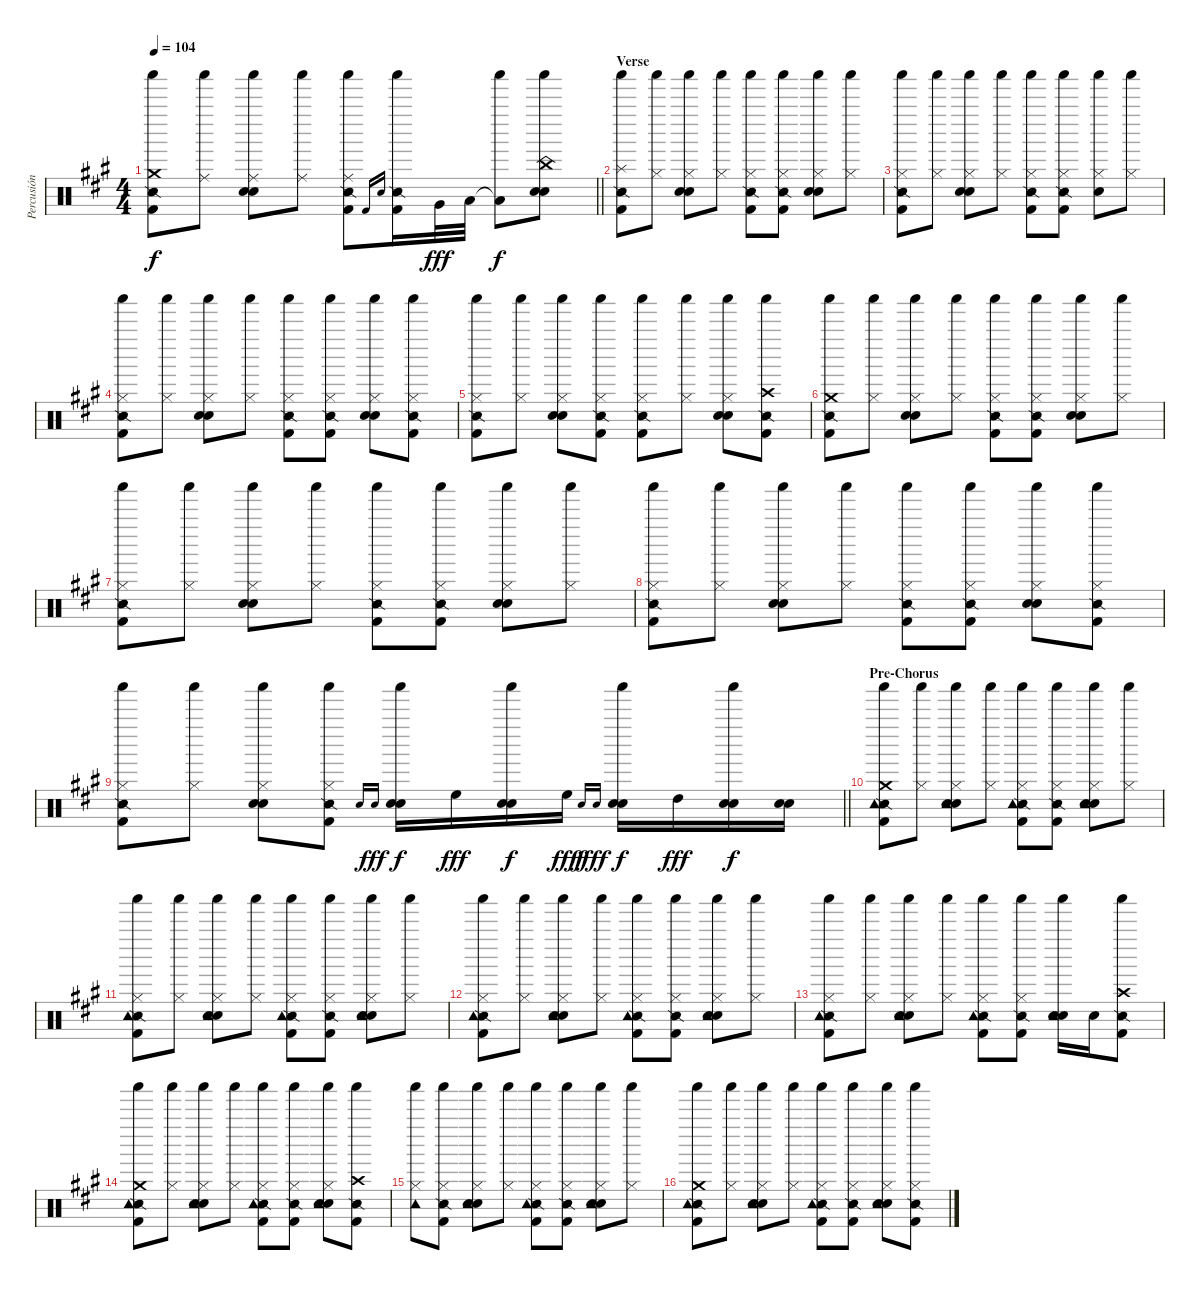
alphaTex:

\track ("Percusión" "Percusión") {instrument percussion}
\staff {score}
\articulation defaults
\ts (4 4)
\tempo 104
\clef neutral
\barLineRight lightlight
\ks a
("Crash medium (hit)" "Kick (hit) 2" "Snare (side stick) 2" "Shaker (hit)").8{dy f} ("Ride (middle)" "Shaker (hit)").8 ("Ride (middle)" "Snare (hit) 2" "Electric Snare (hit)" "Shaker (hit)").8 ("Ride (middle)" "Shaker (hit)").8 ("Ride (middle)" "Kick (hit) 2" "Snare (side stick) 2" "Shaker (hit)").8 "Kick (hit) 2".16{gr onbeat} "Snare (hit)".16{gr onbeat} ("Kick (hit) 2" "Snare (side stick) 2" "Shaker (hit)").16 "Very Low Tom (hit)".32{dy fff} "Low Floor Tom (hit)".32 ("Low Floor Tom (hit)"{t} "Shaker (hit)").8{dy f} ("China (hit)" "Snare (hit) 2" "Electric Snare (hit)" "Shaker (hit)").8 |
\section ("" "Verse")
("Splash (hit)" "Kick (hit) 2" "Snare (side stick) 2" "Shaker (hit)").8 ("Hi-Hat (closed)" "Shaker (hit)").8 ("Hi-Hat (closed)" "Snare (hit) 2" "Electric Snare (hit)" "Shaker (hit)").8 ("Hi-Hat (closed)" "Shaker (hit)").8 ("Hi-Hat (closed)" "Kick (hit) 2" "Snare (side stick) 2" "Shaker (hit)").8 ("Hi-Hat (closed)" "Kick (hit) 2" "Snare (side stick) 2" "Shaker (hit)").8 ("Hi-Hat (closed)" "Snare (hit) 2" "Electric Snare (hit)" "Shaker (hit)").8 ("Hi-Hat (closed)" "Shaker (hit)").8 |
("Hi-Hat (closed)" "Kick (hit) 2" "Snare (side stick) 2" "Shaker (hit)").8 ("Hi-Hat (closed)" "Shaker (hit)").8 ("Hi-Hat (closed)" "Snare (hit) 2" "Electric Snare (hit)" "Shaker (hit)").8 ("Hi-Hat (closed)" "Shaker (hit)").8 ("Hi-Hat (closed)" "Kick (hit) 2" "Snare (side stick) 2" "Shaker (hit)").8 ("Hi-Hat (closed)" "Kick (hit) 2" "Snare (side stick) 2" "Shaker (hit)").8 ("Hi-Hat (closed)" "Snare (hit) 2" "Shaker (hit)").8 ("Hi-Hat (closed)" "Shaker (hit)").8 |
("Hi-Hat (closed)" "Kick (hit) 2" "Snare (side stick) 2" "Shaker (hit)").8 ("Hi-Hat (closed)" "Shaker (hit)").8 ("Hi-Hat (closed)" "Snare (hit) 2" "Electric Snare (hit)" "Shaker (hit)").8 ("Hi-Hat (closed)" "Shaker (hit)").8 ("Hi-Hat (closed)" "Kick (hit) 2" "Snare (side stick) 2" "Shaker (hit)").8 ("Hi-Hat (closed)" "Kick (hit) 2" "Snare (side stick) 2" "Shaker (hit)").8 ("Hi-Hat (closed)" "Snare (hit) 2" "Electric Snare (hit)" "Shaker (hit)").8 ("Hi-Hat (closed)" "Kick (hit) 2" "Snare (side stick) 2" "Shaker (hit)").8 |
("Hi-Hat (closed)" "Kick (hit) 2" "Snare (side stick) 2" "Shaker (hit)").8 ("Hi-Hat (closed)" "Shaker (hit)").8 ("Hi-Hat (closed)" "Snare (hit) 2" "Electric Snare (hit)" "Shaker (hit)").8 ("Hi-Hat (closed)" "Kick (hit) 2" "Snare (side stick) 2" "Shaker (hit)").8 ("Hi-Hat (closed)" "Kick (hit) 2" "Snare (side stick) 2" "Shaker (hit)").8 ("Hi-Hat (closed)" "Shaker (hit)").8 ("Hi-Hat (closed)" "Snare (hit) 2" "Electric Snare (hit)" "Shaker (hit)").8 ("Crash high (hit)" "Kick (hit) 2" "Snare (side stick) 2" "Shaker (hit)").8 |
("Crash medium (hit)" "Kick (hit) 2" "Snare (side stick) 2" "Shaker (hit)").8 ("Hi-Hat (closed)" "Shaker (hit)").8 ("Hi-Hat (closed)" "Snare (hit) 2" "Electric Snare (hit)" "Shaker (hit)").8 ("Hi-Hat (closed)" "Shaker (hit)").8 ("Hi-Hat (closed)" "Kick (hit) 2" "Snare (side stick) 2" "Shaker (hit)").8 ("Hi-Hat (closed)" "Kick (hit) 2" "Snare (side stick) 2" "Shaker (hit)").8 ("Hi-Hat (closed)" "Snare (hit) 2" "Electric Snare (hit)" "Shaker (hit)").8 ("Hi-Hat (closed)" "Shaker (hit)").8 |
("Hi-Hat (closed)" "Kick (hit) 2" "Snare (side stick) 2" "Shaker (hit)").8 ("Hi-Hat (closed)" "Shaker (hit)").8 ("Hi-Hat (closed)" "Snare (hit) 2" "Electric Snare (hit)" "Shaker (hit)").8 ("Hi-Hat (closed)" "Shaker (hit)").8 ("Hi-Hat (closed)" "Kick (hit) 2" "Snare (side stick) 2" "Shaker (hit)").8 ("Hi-Hat (closed)" "Kick (hit) 2" "Snare (side stick) 2" "Shaker (hit)").8 ("Hi-Hat (closed)" "Snare (hit) 2" "Electric Snare (hit)" "Shaker (hit)").8 ("Hi-Hat (closed)" "Shaker (hit)").8 |
("Hi-Hat (closed)" "Kick (hit) 2" "Snare (side stick) 2" "Shaker (hit)").8 ("Hi-Hat (closed)" "Shaker (hit)").8 ("Hi-Hat (closed)" "Snare (hit) 2" "Electric Snare (hit)" "Shaker (hit)").8 ("Hi-Hat (closed)" "Shaker (hit)").8 ("Hi-Hat (closed)" "Kick (hit) 2" "Snare (side stick) 2" "Shaker (hit)").8 ("Hi-Hat (closed)" "Kick (hit) 2" "Snare (side stick) 2" "Shaker (hit)").8 ("Hi-Hat (closed)" "Snare (hit) 2" "Electric Snare (hit)" "Shaker (hit)").8 ("Hi-Hat (closed)" "Kick (hit) 2" "Snare (side stick) 2" "Shaker (hit)").8 |
\barLineRight lightlight
("Hi-Hat (closed)" "Kick (hit) 2" "Snare (side stick) 2" "Shaker (hit)").8 ("Hi-Hat (closed)" "Shaker (hit)").8 ("Hi-Hat (closed)" "Snare (hit) 2" "Electric Snare (hit)" "Shaker (hit)").8 ("Hi-Hat (closed)" "Kick (hit) 2" "Snare (side stick) 2" "Shaker (hit)").8 "Snare (hit) 2".16{gr onbeat} "Electric Snare (hit)".16{gr onbeat dy fff} ("Snare (hit) 2" "Electric Snare (hit)" "Shaker (hit)").16{dy f} "High Floor Tom (hit)".16{dy fff} ("Snare (hit) 2" "Electric Snare (hit)" "Shaker (hit)").16{dy f} "High Floor Tom (hit)".16{dy fff} "Snare (hit) 2".16{gr onbeat dy f} "Electric Snare (hit)".16{gr onbeat dy fff} ("Snare (hit) 2" "Electric Snare (hit)" "Shaker (hit)").16{dy f} "High Tom (hit)".16{dy fff} ("Snare (hit) 2" "Electric Snare (hit)" "Shaker (hit)").16{dy f} ("Snare (hit) 2" "Electric Snare (hit)").16 |
\section ("" "Pre-Chorus")
("Crash medium (hit)" "Kick (hit) 2" "Snare (side stick) 2" "Tambourine (hit)" "Shaker (hit)").8 ("Hi-Hat (closed)" "Shaker (hit)").8 ("Hi-Hat (closed)" "Snare (hit) 2" "Electric Snare (hit)" "Tambourine (hit)" "Shaker (hit)").8 ("Hi-Hat (closed)" "Shaker (hit)").8 ("Hi-Hat (closed)" "Kick (hit) 2" "Snare (side stick) 2" "Tambourine (hit)" "Shaker (hit)").8 ("Hi-Hat (closed)" "Kick (hit) 2" "Snare (side stick) 2" "Shaker (hit)").8 ("Hi-Hat (closed)" "Snare (hit) 2" "Electric Snare (hit)" "Tambourine (hit)" "Shaker (hit)").8 ("Hi-Hat (closed)" "Shaker (hit)").8 |
("Hi-Hat (closed)" "Kick (hit) 2" "Snare (side stick) 2" "Tambourine (hit)" "Shaker (hit)").8 ("Hi-Hat (closed)" "Shaker (hit)").8 ("Hi-Hat (closed)" "Snare (hit) 2" "Electric Snare (hit)" "Tambourine (hit)" "Shaker (hit)").8 ("Hi-Hat (closed)" "Shaker (hit)").8 ("Hi-Hat (closed)" "Kick (hit) 2" "Snare (side stick) 2" "Tambourine (hit)" "Shaker (hit)").8 ("Hi-Hat (closed)" "Kick (hit) 2" "Snare (side stick) 2" "Shaker (hit)").8 ("Hi-Hat (closed)" "Snare (hit) 2" "Electric Snare (hit)" "Tambourine (hit)" "Shaker (hit)").8 ("Hi-Hat (closed)" "Shaker (hit)").8 |
("Hi-Hat (closed)" "Kick (hit) 2" "Snare (side stick) 2" "Tambourine (hit)" "Shaker (hit)").8 ("Hi-Hat (closed)" "Shaker (hit)").8 ("Hi-Hat (closed)" "Snare (hit) 2" "Electric Snare (hit)" "Tambourine (hit)" "Shaker (hit)").8 ("Hi-Hat (closed)" "Shaker (hit)").8 ("Hi-Hat (closed)" "Kick (hit) 2" "Snare (side stick) 2" "Tambourine (hit)" "Shaker (hit)").8 ("Hi-Hat (closed)" "Kick (hit) 2" "Snare (side stick) 2" "Shaker (hit)").8 ("Hi-Hat (closed)" "Snare (hit) 2" "Electric Snare (hit)" "Tambourine (hit)" "Shaker (hit)").8 ("Hi-Hat (closed)" "Shaker (hit)").8 |
("Hi-Hat (closed)" "Kick (hit) 2" "Snare (side stick) 2" "Tambourine (hit)" "Shaker (hit)").8 ("Hi-Hat (closed)" "Shaker (hit)").8 ("Hi-Hat (closed)" "Snare (hit) 2" "Electric Snare (hit)" "Tambourine (hit)" "Shaker (hit)").8 ("Hi-Hat (closed)" "Shaker (hit)").8 ("Hi-Hat (closed)" "Kick (hit) 2" "Snare (side stick) 2" "Tambourine (hit)" "Shaker (hit)").8 ("Hi-Hat (closed)" "Kick (hit) 2" "Snare (side stick) 2" "Shaker (hit)").8 ("Snare (hit) 2" "Electric Snare (hit)" "Tambourine (hit)" "Shaker (hit)").16 "Snare (hit) 2".16 ("Crash high (hit)" "Kick (hit) 2" "Snare (side stick) 2" "Shaker (hit)").8 |
("Crash medium (hit)" "Kick (hit) 2" "Snare (side stick) 2" "Tambourine (hit)" "Shaker (hit)").8 ("Hi-Hat (closed)" "Shaker (hit)").8 ("Hi-Hat (closed)" "Snare (hit) 2" "Electric Snare (hit)" "Tambourine (hit)" "Shaker (hit)").8 ("Hi-Hat (closed)" "Shaker (hit)").8 ("Hi-Hat (closed)" "Kick (hit) 2" "Snare (side stick) 2" "Tambourine (hit)" "Shaker (hit)").8 ("Hi-Hat (closed)" "Kick (hit) 2" "Snare (side stick) 2" "Shaker (hit)").8 ("Hi-Hat (closed)" "Snare (hit) 2" "Electric Snare (hit)" "Tambourine (hit)" "Shaker (hit)").8 ("Crash high (hit)" "Kick (hit) 2" "Snare (side stick) 2" "Shaker (hit)").8 |
("Hi-Hat (closed)" "Tambourine (hit)" "Shaker (hit)").8 ("Hi-Hat (closed)" "Kick (hit) 2" "Snare (side stick) 2" "Shaker (hit)").8 ("Hi-Hat (closed)" "Snare (hit) 2" "Electric Snare (hit)" "Tambourine (hit)" "Shaker (hit)").8 ("Hi-Hat (closed)" "Shaker (hit)").8 ("Hi-Hat (closed)" "Kick (hit) 2" "Snare (side stick) 2" "Tambourine (hit)" "Shaker (hit)").8 ("Hi-Hat (closed)" "Kick (hit) 2" "Snare (side stick) 2" "Shaker (hit)").8 ("Hi-Hat (closed)" "Snare (hit) 2" "Electric Snare (hit)" "Tambourine (hit)" "Shaker (hit)").8 ("Hi-Hat (closed)" "Shaker (hit)").8 |
("Crash medium (hit)" "Kick (hit) 2" "Snare (side stick) 2" "Tambourine (hit)" "Shaker (hit)").8 ("Hi-Hat (closed)" "Shaker (hit)").8 ("Hi-Hat (closed)" "Snare (hit) 2" "Electric Snare (hit)" "Tambourine (hit)" "Shaker (hit)").8 ("Hi-Hat (closed)" "Shaker (hit)").8 ("Hi-Hat (closed)" "Kick (hit) 2" "Snare (side stick) 2" "Tambourine (hit)" "Shaker (hit)").8 ("Hi-Hat (closed)" "Kick (hit) 2" "Snare (side stick) 2" "Shaker (hit)").8 ("Hi-Hat (closed)" "Snare (hit) 2" "Electric Snare (hit)" "Tambourine (hit)" "Shaker (hit)").8 ("Hi-Hat (closed)" "Kick (hit) 2" "Snare (side stick) 2" "Shaker (hit)").8
